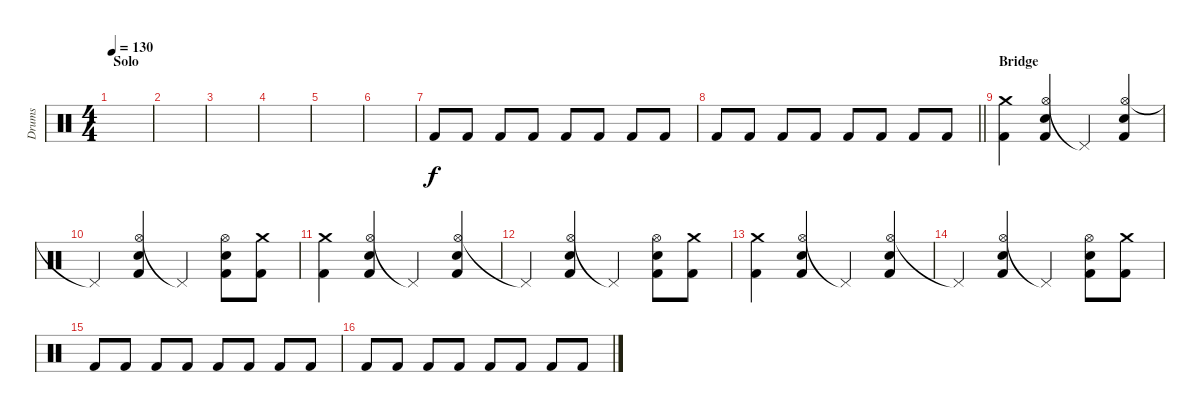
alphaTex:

\track ("Drums" "Drums") {instrument percussion}
\staff {score}
\articulation defaults
\ts (4 4)
\section ("" "Solo")
\tempo 130
\clef neutral
\ks c
|
|
|
|
|
|
"Kick (hit) 2".8 "Kick (hit) 2".8 "Kick (hit) 2".8 "Kick (hit) 2".8 "Kick (hit) 2".8 "Kick (hit) 2".8 "Kick (hit) 2".8 "Kick (hit) 2".8 |
\barLineRight lightlight "Kick (hit) 2".8 "Kick (hit) 2".8 "Kick (hit) 2".8 "Kick (hit) 2".8 "Kick (hit) 2".8 "Kick (hit) 2".8 "Kick (hit) 2".8 "Kick (hit) 2".8
|
\section ("" "Bridge")
("Crash medium (hit)" "Kick (hit) 2").4 ("Hi-Hat (open)" "Snare (hit) 2" "Kick (hit) 2").4 "Pedal Hi-Hat (hit)"{t}.4 ("Hi-Hat (open)" "Snare (hit) 2" "Kick (hit) 2").4 |
"Pedal Hi-Hat (hit)"{t}.4 ("Hi-Hat (open)" "Snare (hit) 2" "Kick (hit) 2").4 "Pedal Hi-Hat (hit)"{t}.4 ("Hi-Hat (open)" "Snare (hit) 2" "Kick (hit) 2").8 ("Crash medium (hit)" "Kick (hit) 2").8 |
("Crash medium (hit)" "Kick (hit) 2").4 ("Hi-Hat (open)" "Snare (hit) 2" "Kick (hit) 2").4 "Pedal Hi-Hat (hit)"{t}.4 ("Hi-Hat (open)" "Snare (hit) 2" "Kick (hit) 2").4 |
"Pedal Hi-Hat (hit)"{t}.4 ("Hi-Hat (open)" "Snare (hit) 2" "Kick (hit) 2").4 "Pedal Hi-Hat (hit)"{t}.4 ("Hi-Hat (open)" "Snare (hit) 2" "Kick (hit) 2").8 ("Crash medium (hit)" "Kick (hit) 2").8 |
("Crash medium (hit)" "Kick (hit) 2").4 ("Hi-Hat (open)" "Snare (hit) 2" "Kick (hit) 2").4 "Pedal Hi-Hat (hit)"{t}.4 ("Hi-Hat (open)" "Snare (hit) 2" "Kick (hit) 2").4 |
"Pedal Hi-Hat (hit)"{t}.4 ("Hi-Hat (open)" "Snare (hit) 2" "Kick (hit) 2").4 "Pedal Hi-Hat (hit)"{t}.4 ("Hi-Hat (open)" "Snare (hit) 2" "Kick (hit) 2").8 ("Crash medium (hit)" "Kick (hit) 2").8 |
"Kick (hit) 2".8 "Kick (hit) 2".8 "Kick (hit) 2".8 "Kick (hit) 2".8 "Kick (hit) 2".8 "Kick (hit) 2".8 "Kick (hit) 2".8 "Kick (hit) 2".8 |
"Kick (hit) 2".8 "Kick (hit) 2".8 "Kick (hit) 2".8 "Kick (hit) 2".8 "Kick (hit) 2".8 "Kick (hit) 2".8 "Kick (hit) 2".8 "Kick (hit) 2".8
